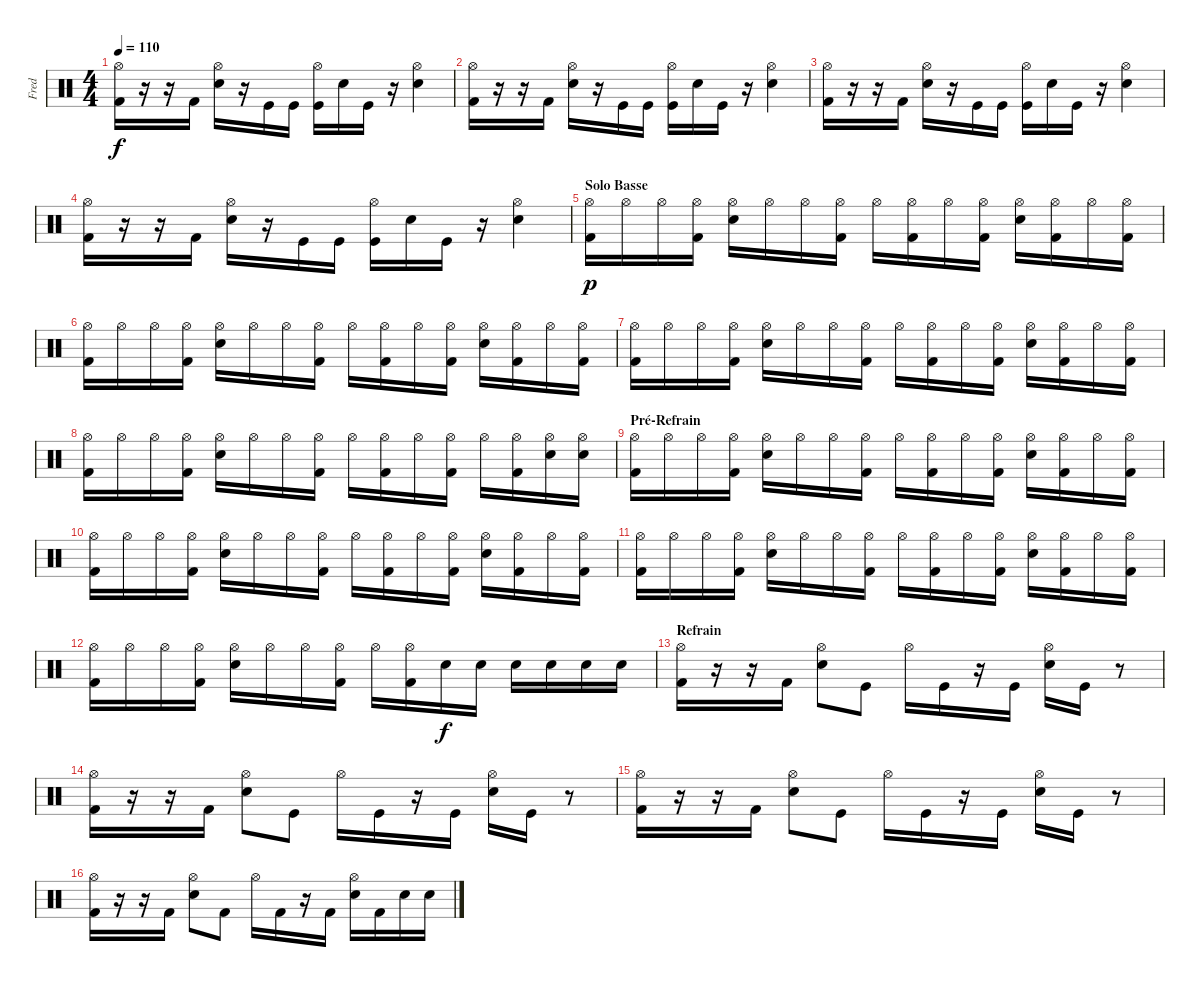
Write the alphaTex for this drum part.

\track ("Fred" "Fred") {instrument percussion}
\staff {score}
\articulation defaults
\ts (4 4)
\tempo 110
\clef neutral
\ks c
("Hi-Hat (open)" "Kick (hit) 2").16{dy f} r.16 r.16 "Kick (hit) 2".16 ("Hi-Hat (open)" "Electric Snare (hit)").16 r.16 "Kick (hit)".16 "Kick (hit)".16 ("Hi-Hat (open)" "Kick (hit)").16 "Electric Snare (hit)".16 "Kick (hit)".16 r.16 ("Hi-Hat (open)" "Electric Snare (hit)").4 |
("Hi-Hat (open)" "Kick (hit) 2").16 r.16 r.16 "Kick (hit) 2".16 ("Hi-Hat (open)" "Electric Snare (hit)").16 r.16 "Kick (hit)".16 "Kick (hit)".16 ("Hi-Hat (open)" "Kick (hit)").16 "Electric Snare (hit)".16 "Kick (hit)".16 r.16 ("Hi-Hat (open)" "Electric Snare (hit)").4 |
("Hi-Hat (open)" "Kick (hit) 2").16 r.16 r.16 "Kick (hit) 2".16 ("Hi-Hat (open)" "Electric Snare (hit)").16 r.16 "Kick (hit)".16 "Kick (hit)".16 ("Hi-Hat (open)" "Kick (hit)").16 "Electric Snare (hit)".16 "Kick (hit)".16 r.16 ("Hi-Hat (open)" "Electric Snare (hit)").4 |
("Hi-Hat (open)" "Kick (hit) 2").16 r.16 r.16 "Kick (hit) 2".16 ("Hi-Hat (open)" "Electric Snare (hit)").16 r.16 "Kick (hit)".16 "Kick (hit)".16 ("Hi-Hat (open)" "Kick (hit)").16 "Electric Snare (hit)".16 "Kick (hit)".16 r.16 ("Hi-Hat (open)" "Electric Snare (hit)").4 |
\section ("" "Solo Basse")
("Hi-Hat (open)" "Kick (hit) 2").16{dy p} "Hi-Hat (open)".16 "Hi-Hat (open)".16 ("Hi-Hat (open)" "Kick (hit) 2").16 ("Hi-Hat (open)" "Electric Snare (hit)").16 "Hi-Hat (open)".16 "Hi-Hat (open)".16 ("Hi-Hat (open)" "Kick (hit) 2").16 "Hi-Hat (open)".16 ("Hi-Hat (open)" "Kick (hit) 2").16 "Hi-Hat (open)".16 ("Hi-Hat (open)" "Kick (hit) 2").16 ("Hi-Hat (open)" "Electric Snare (hit)").16 ("Hi-Hat (open)" "Kick (hit) 2").16 "Hi-Hat (open)".16 ("Hi-Hat (open)" "Kick (hit) 2").16 |
("Hi-Hat (open)" "Kick (hit) 2").16 "Hi-Hat (open)".16 "Hi-Hat (open)".16 ("Hi-Hat (open)" "Kick (hit) 2").16 ("Hi-Hat (open)" "Electric Snare (hit)").16 "Hi-Hat (open)".16 "Hi-Hat (open)".16 ("Hi-Hat (open)" "Kick (hit) 2").16 "Hi-Hat (open)".16 ("Hi-Hat (open)" "Kick (hit) 2").16 "Hi-Hat (open)".16 ("Hi-Hat (open)" "Kick (hit) 2").16 ("Hi-Hat (open)" "Electric Snare (hit)").16 ("Hi-Hat (open)" "Kick (hit) 2").16 "Hi-Hat (open)".16 ("Hi-Hat (open)" "Kick (hit) 2").16 |
("Hi-Hat (open)" "Kick (hit) 2").16 "Hi-Hat (open)".16 "Hi-Hat (open)".16 ("Hi-Hat (open)" "Kick (hit) 2").16 ("Hi-Hat (open)" "Electric Snare (hit)").16 "Hi-Hat (open)".16 "Hi-Hat (open)".16 ("Hi-Hat (open)" "Kick (hit) 2").16 "Hi-Hat (open)".16 ("Hi-Hat (open)" "Kick (hit) 2").16 "Hi-Hat (open)".16 ("Hi-Hat (open)" "Kick (hit) 2").16 ("Hi-Hat (open)" "Electric Snare (hit)").16 ("Hi-Hat (open)" "Kick (hit) 2").16 "Hi-Hat (open)".16 ("Hi-Hat (open)" "Kick (hit) 2").16 |
("Hi-Hat (open)" "Kick (hit) 2").16 "Hi-Hat (open)".16 "Hi-Hat (open)".16 ("Hi-Hat (open)" "Kick (hit) 2").16 ("Hi-Hat (open)" "Electric Snare (hit)").16 "Hi-Hat (open)".16 "Hi-Hat (open)".16 ("Hi-Hat (open)" "Kick (hit) 2").16 "Hi-Hat (open)".16 ("Hi-Hat (open)" "Kick (hit) 2").16 "Hi-Hat (open)".16 ("Hi-Hat (open)" "Kick (hit) 2").16 "Hi-Hat (open)".16 ("Hi-Hat (open)" "Kick (hit) 2").16 ("Hi-Hat (open)" "Electric Snare (hit)").16 ("Hi-Hat (open)" "Electric Snare (hit)").16 |
\section ("" "Pré-Refrain")
("Hi-Hat (open)" "Kick (hit) 2").16 "Hi-Hat (open)".16 "Hi-Hat (open)".16 ("Hi-Hat (open)" "Kick (hit) 2").16 ("Hi-Hat (open)" "Electric Snare (hit)").16 "Hi-Hat (open)".16 "Hi-Hat (open)".16 ("Hi-Hat (open)" "Kick (hit) 2").16 "Hi-Hat (open)".16 ("Hi-Hat (open)" "Kick (hit) 2").16 "Hi-Hat (open)".16 ("Hi-Hat (open)" "Kick (hit) 2").16 ("Hi-Hat (open)" "Electric Snare (hit)").16 ("Hi-Hat (open)" "Kick (hit) 2").16 "Hi-Hat (open)".16 ("Hi-Hat (open)" "Kick (hit) 2").16 |
("Hi-Hat (open)" "Kick (hit) 2").16 "Hi-Hat (open)".16 "Hi-Hat (open)".16 ("Hi-Hat (open)" "Kick (hit) 2").16 ("Hi-Hat (open)" "Electric Snare (hit)").16 "Hi-Hat (open)".16 "Hi-Hat (open)".16 ("Hi-Hat (open)" "Kick (hit) 2").16 "Hi-Hat (open)".16 ("Hi-Hat (open)" "Kick (hit) 2").16 "Hi-Hat (open)".16 ("Hi-Hat (open)" "Kick (hit) 2").16 ("Hi-Hat (open)" "Electric Snare (hit)").16 ("Hi-Hat (open)" "Kick (hit) 2").16 "Hi-Hat (open)".16 ("Hi-Hat (open)" "Kick (hit) 2").16 |
("Hi-Hat (open)" "Kick (hit) 2").16 "Hi-Hat (open)".16 "Hi-Hat (open)".16 ("Hi-Hat (open)" "Kick (hit) 2").16 ("Hi-Hat (open)" "Electric Snare (hit)").16 "Hi-Hat (open)".16 "Hi-Hat (open)".16 ("Hi-Hat (open)" "Kick (hit) 2").16 "Hi-Hat (open)".16 ("Hi-Hat (open)" "Kick (hit) 2").16 "Hi-Hat (open)".16 ("Hi-Hat (open)" "Kick (hit) 2").16 ("Hi-Hat (open)" "Electric Snare (hit)").16 ("Hi-Hat (open)" "Kick (hit) 2").16 "Hi-Hat (open)".16 ("Hi-Hat (open)" "Kick (hit) 2").16 |
("Hi-Hat (open)" "Kick (hit) 2").16 "Hi-Hat (open)".16 "Hi-Hat (open)".16 ("Hi-Hat (open)" "Kick (hit) 2").16 ("Hi-Hat (open)" "Electric Snare (hit)").16 "Hi-Hat (open)".16 "Hi-Hat (open)".16 ("Hi-Hat (open)" "Kick (hit) 2").16 "Hi-Hat (open)".16 ("Hi-Hat (open)" "Kick (hit) 2").16 "Electric Snare (hit)".16{dy f} "Electric Snare (hit)".16 "Electric Snare (hit)".16 "Electric Snare (hit)".16 "Electric Snare (hit)".16 "Electric Snare (hit)".16 |
\section ("" "Refrain")
("Hi-Hat (open)" "Kick (hit) 2").16 r.16 r.16 "Kick (hit) 2".16 ("Hi-Hat (open)" "Electric Snare (hit)").8 "Kick (hit)".8 "Hi-Hat (open)".16 "Kick (hit)".16 r.16 "Kick (hit)".16 ("Hi-Hat (open)" "Electric Snare (hit)").16 "Kick (hit)".16 r.8 |
("Hi-Hat (open)" "Kick (hit) 2").16 r.16 r.16 "Kick (hit) 2".16 ("Hi-Hat (open)" "Electric Snare (hit)").8 "Kick (hit)".8 "Hi-Hat (open)".16 "Kick (hit)".16 r.16 "Kick (hit)".16 ("Hi-Hat (open)" "Electric Snare (hit)").16 "Kick (hit)".16 r.8 |
("Hi-Hat (open)" "Kick (hit) 2").16 r.16 r.16 "Kick (hit) 2".16 ("Hi-Hat (open)" "Electric Snare (hit)").8 "Kick (hit)".8 "Hi-Hat (open)".16 "Kick (hit)".16 r.16 "Kick (hit)".16 ("Hi-Hat (open)" "Electric Snare (hit)").16 "Kick (hit)".16 r.8 |
("Hi-Hat (open)" "Kick (hit) 2").16 r.16 r.16 "Kick (hit) 2".16 ("Hi-Hat (open)" "Electric Snare (hit)").8 "Kick (hit) 2".8 "Hi-Hat (open)".16 "Kick (hit) 2".16 r.16 "Kick (hit) 2".16 ("Hi-Hat (open)" "Electric Snare (hit)").16 "Kick (hit) 2".16 "Electric Snare (hit)".16 "Electric Snare (hit)".16
